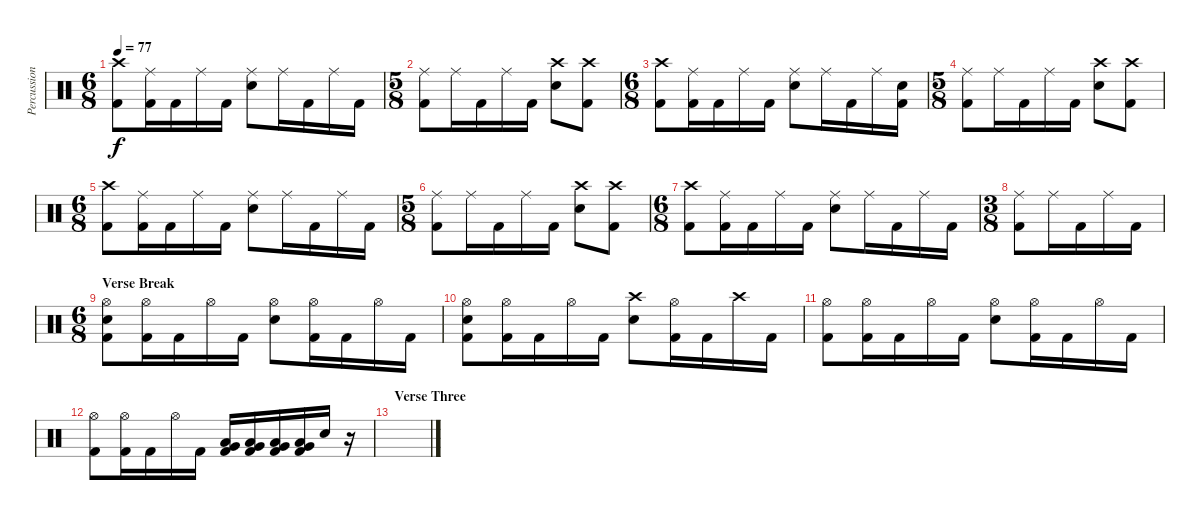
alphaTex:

\track ("Percussion" "Percussion") {instrument percussion}
\staff {score}
\articulation defaults
\ts (6 8)
\tempo 77
\clef neutral
\ks c
("Crash high (hit)" "Kick (hit) 2").8{dy f} ("Ride (middle)" "Kick (hit) 2").16 "Kick (hit) 2".16 "Ride (middle)".16 "Kick (hit) 2".16 ("Ride (middle)" "Electric Snare (hit)").8 "Ride (middle)".16 "Kick (hit) 2".16 "Ride (middle)".16 "Kick (hit) 2".16 |
\ts (5 8)
("Ride (middle)" "Kick (hit) 2").8 "Ride (middle)".16 "Kick (hit) 2".16 "Ride (middle)".16 "Kick (hit) 2".16 ("Crash high (hit)" "Electric Snare (hit)").8 ("Crash high (hit)" "Kick (hit) 2").8 |
\ts (6 8)
("Crash high (hit)" "Kick (hit) 2").8 ("Ride (middle)" "Kick (hit) 2").16 "Kick (hit) 2".16 "Ride (middle)".16 "Kick (hit) 2".16 ("Ride (middle)" "Electric Snare (hit)").8 "Ride (middle)".16 "Kick (hit) 2".16 "Ride (middle)".16 ("Electric Snare (hit)" "Kick (hit) 2").16 |
\ts (5 8)
("Ride (middle)" "Kick (hit) 2").8 "Ride (middle)".16 "Kick (hit) 2".16 "Ride (middle)".16 "Kick (hit) 2".16 ("Crash high (hit)" "Electric Snare (hit)").8 ("Crash high (hit)" "Kick (hit) 2").8 |
\ts (6 8)
("Crash high (hit)" "Kick (hit) 2").8 ("Ride (middle)" "Kick (hit) 2").16 "Kick (hit) 2".16 "Ride (middle)".16 "Kick (hit) 2".16 ("Ride (middle)" "Electric Snare (hit)").8 "Ride (middle)".16 "Kick (hit) 2".16 "Ride (middle)".16 "Kick (hit) 2".16 |
\ts (5 8)
("Ride (middle)" "Kick (hit) 2").8 "Ride (middle)".16 "Kick (hit) 2".16 "Ride (middle)".16 "Kick (hit) 2".16 ("Crash high (hit)" "Electric Snare (hit)").8 ("Crash high (hit)" "Kick (hit) 2").8 |
\ts (6 8)
("Crash high (hit)" "Kick (hit) 2").8 ("Ride (middle)" "Kick (hit) 2").16 "Kick (hit) 2".16 "Ride (middle)".16 "Kick (hit) 2".16 ("Ride (middle)" "Electric Snare (hit)").8 "Ride (middle)".16 "Kick (hit) 2".16 "Ride (middle)".16 "Kick (hit) 2".16 |
\ts (3 8)
("Ride (middle)" "Kick (hit) 2").8 "Ride (middle)".16 "Kick (hit) 2".16 "Ride (middle)".16 "Kick (hit) 2".16 |
\ts (6 8)
\section ("" "Verse Break")
("Hi-Hat (open)" "Electric Snare (hit)" "Kick (hit) 2").8 ("Hi-Hat (open)" "Kick (hit) 2").16 "Kick (hit) 2".16 "Hi-Hat (open)".16 "Kick (hit) 2".16 ("Hi-Hat (open)" "Electric Snare (hit)").8 ("Hi-Hat (open)" "Kick (hit) 2").16 "Kick (hit) 2".16 "Hi-Hat (open)".16 "Kick (hit) 2".16 |
("Hi-Hat (open)" "Electric Snare (hit)" "Kick (hit) 2").8 ("Hi-Hat (open)" "Kick (hit) 2").16 "Kick (hit) 2".16 "Hi-Hat (open)".16 "Kick (hit) 2".16 ("Crash high (hit)" "Electric Snare (hit)").8 ("Hi-Hat (open)" "Kick (hit) 2").16 "Kick (hit) 2".16 "Crash high (hit)".16 "Kick (hit) 2".16 |
("Hi-Hat (open)" "Kick (hit) 2").8 ("Hi-Hat (open)" "Kick (hit) 2").16 "Kick (hit) 2".16 "Hi-Hat (open)".16 "Kick (hit) 2".16 ("Hi-Hat (open)" "Electric Snare (hit)").8 ("Hi-Hat (open)" "Kick (hit) 2").16 "Kick (hit) 2".16 "Hi-Hat (open)".16 "Kick (hit) 2".16 |
("Hi-Hat (open)" "Kick (hit) 2").8 ("Hi-Hat (open)" "Kick (hit) 2").16 "Kick (hit) 2".16 "Hi-Hat (open)".16 "Kick (hit) 2".16 ("Kick (hit) 2" "Low Tom (hit)" "Very Low Tom (hit)").16 ("Kick (hit) 2" "Low Tom (hit)" "Very Low Tom (hit)").16 ("Kick (hit) 2" "Low Tom (hit)" "Very Low Tom (hit)").16 ("Kick (hit) 2" "Low Tom (hit)" "Very Low Tom (hit)").16 "Electric Snare (hit)".16 r.16 |
\section ("" "Verse Three")
